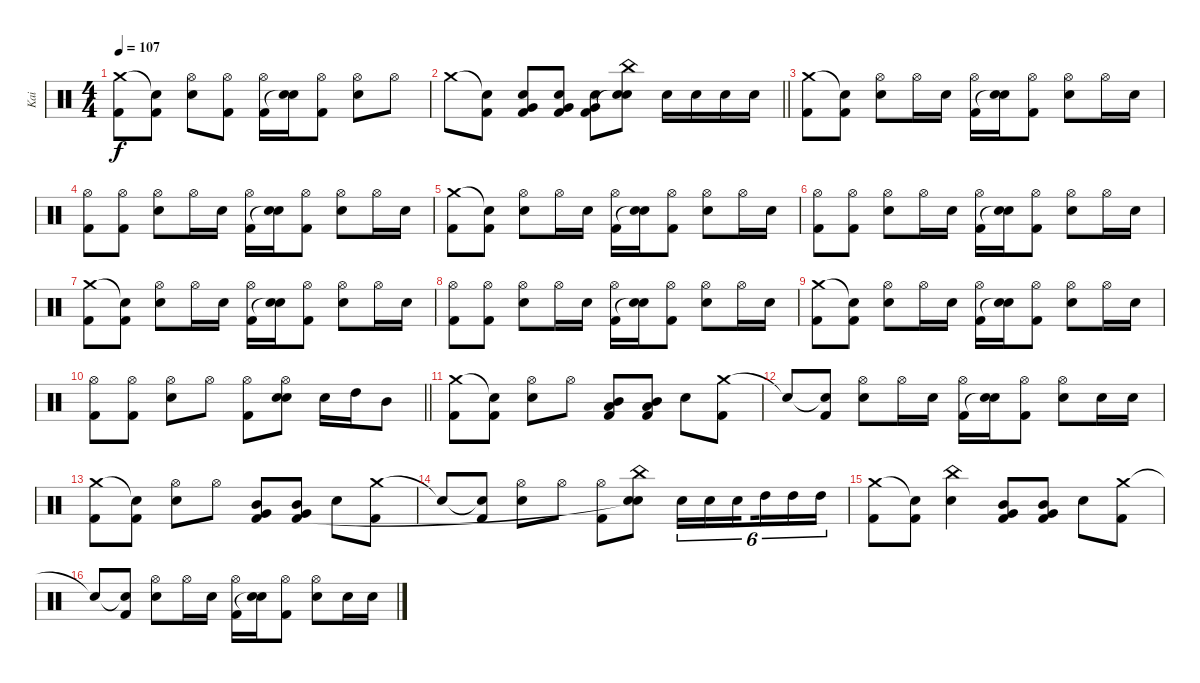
\track ("Kai" "Kai") {instrument percussion}
\staff {score}
\articulation defaults
\ts (4 4)
\tempo 107
\clef neutral
\ks c
("Crash medium (hit)" "Kick (hit) 2").8{dy f} ("Snare (hit)"{t} "Kick (hit) 2").8 ("Hi-Hat (open)" "Snare (hit) 2").8 ("Hi-Hat (open)" "Kick (hit) 2").8 ("Hi-Hat (open)" "Kick (hit) 2").16 ("Snare (hit) 2" "Snare (hit)"{t}).16 ("Hi-Hat (open)" "Kick (hit) 2").8 ("Hi-Hat (open)" "Snare (hit) 2").8 "Hi-Hat (open)".8 |
\barLineRight lightlight "Crash medium (hit)".8
("Snare (hit)"{t} "Kick (hit) 2").8 ("Snare (hit) 2" "Very Low Tom (hit)" "Kick (hit) 2").8 ("Snare (hit) 2" "Very Low Tom (hit)" "Kick (hit) 2").8 ("Snare (hit) 2" "Very Low Tom (hit)" "Kick (hit) 2").8 ("China (hit)" "Snare (hit) 2" "Snare (hit)"{t}).8 "Snare (hit) 2".16 "Snare (hit) 2".16 "Snare (hit) 2".16 "Snare (hit) 2".16 |
("Crash medium (hit)" "Kick (hit) 2").8 ("Snare (hit)"{t} "Kick (hit) 2").8 ("Hi-Hat (open)" "Snare (hit) 2").8 "Hi-Hat (open)".16 "Snare (hit) 2".16 ("Hi-Hat (open)" "Kick (hit) 2").16 ("Snare (hit) 2" "Snare (hit)"{t}).16 ("Hi-Hat (open)" "Kick (hit) 2").8 ("Hi-Hat (open)" "Snare (hit) 2").8 "Hi-Hat (open)".16 "Snare (hit) 2".16 |
("Hi-Hat (open)" "Kick (hit) 2").8 ("Hi-Hat (open)" "Kick (hit) 2").8 ("Hi-Hat (open)" "Snare (hit) 2").8 "Hi-Hat (open)".16 "Snare (hit) 2".16 ("Hi-Hat (open)" "Kick (hit) 2").16 ("Snare (hit) 2" "Snare (hit)"{t}).16 ("Hi-Hat (open)" "Kick (hit) 2").8 ("Hi-Hat (open)" "Snare (hit) 2").8 "Hi-Hat (open)".16 "Snare (hit) 2".16 |
("Crash medium (hit)" "Kick (hit) 2").8 ("Snare (hit)"{t} "Kick (hit) 2").8 ("Hi-Hat (open)" "Snare (hit) 2").8 "Hi-Hat (open)".16 "Snare (hit) 2".16 ("Hi-Hat (open)" "Kick (hit) 2").16 ("Snare (hit) 2" "Snare (hit)"{t}).16 ("Hi-Hat (open)" "Kick (hit) 2").8 ("Hi-Hat (open)" "Snare (hit) 2").8 "Hi-Hat (open)".16 "Snare (hit) 2".16 |
("Hi-Hat (open)" "Kick (hit) 2").8 ("Hi-Hat (open)" "Kick (hit) 2").8 ("Hi-Hat (open)" "Snare (hit) 2").8 "Hi-Hat (open)".16 "Snare (hit) 2".16 ("Hi-Hat (open)" "Kick (hit) 2").16 ("Snare (hit) 2" "Snare (hit)"{t}).16 ("Hi-Hat (open)" "Kick (hit) 2").8 ("Hi-Hat (open)" "Snare (hit) 2").8 "Hi-Hat (open)".16 "Snare (hit) 2".16 |
("Crash medium (hit)" "Kick (hit) 2").8 ("Snare (hit)"{t} "Kick (hit) 2").8 ("Hi-Hat (open)" "Snare (hit) 2").8 "Hi-Hat (open)".16 "Snare (hit) 2".16 ("Hi-Hat (open)" "Kick (hit) 2").16 ("Snare (hit) 2" "Snare (hit)"{t}).16 ("Hi-Hat (open)" "Kick (hit) 2").8 ("Hi-Hat (open)" "Snare (hit) 2").8 "Hi-Hat (open)".16 "Snare (hit) 2".16 |
("Hi-Hat (open)" "Kick (hit) 2").8 ("Hi-Hat (open)" "Kick (hit) 2").8 ("Hi-Hat (open)" "Snare (hit) 2").8 "Hi-Hat (open)".16 "Snare (hit) 2".16 ("Hi-Hat (open)" "Kick (hit) 2").16 ("Snare (hit) 2" "Snare (hit)"{t}).16 ("Hi-Hat (open)" "Kick (hit) 2").8 ("Hi-Hat (open)" "Snare (hit) 2").8 "Hi-Hat (open)".16 "Snare (hit) 2".16 |
("Crash medium (hit)" "Kick (hit) 2").8 ("Snare (hit)"{t} "Kick (hit) 2").8 ("Hi-Hat (open)" "Snare (hit) 2").8 "Hi-Hat (open)".16 "Snare (hit) 2".16 ("Hi-Hat (open)" "Kick (hit) 2").16 ("Snare (hit) 2" "Snare (hit)"{t}).16 ("Hi-Hat (open)" "Kick (hit) 2").8 ("Hi-Hat (open)" "Snare (hit) 2").8 "Hi-Hat (open)".16 "Snare (hit) 2".16 |
\barLineRight lightlight
("Hi-Hat (open)" "Kick (hit) 2").8 ("Hi-Hat (open)" "Kick (hit) 2").8 ("Hi-Hat (open)" "Snare (hit) 2").8 "Hi-Hat (open)".8 ("Hi-Hat (open)" "Kick (hit) 2").8 ("Hi-Hat (open)" "Snare (hit) 2" "Snare (hit)").8 "Snare (hit) 2".16 "High Tom (hit)".16 "Mid Tom (hit)".8 |
("Crash medium (hit)" "Kick (hit) 2").8 ("Snare (hit)"{t} "Kick (hit) 2").8 ("Hi-Hat (open)" "Snare (hit) 2").8 "Hi-Hat (open)".8 ("Mid Tom (hit)" "Low Tom (hit)" "Kick (hit) 2").8 ("Mid Tom (hit)" "Low Tom (hit)" "Kick (hit) 2").8 "Snare (hit) 2".8 ("Crash medium (hit)" "Kick (hit) 2").8 |
"Snare (hit)"{t}.8 ("Snare (hit)"{t} "Kick (hit) 2").8 ("Hi-Hat (open)" "Snare (hit) 2").8 "Hi-Hat (open)".16 "Snare (hit) 2".16 ("Hi-Hat (open)" "Kick (hit) 2").16 ("Snare (hit) 2" "Snare (hit)"{t}).16 ("Hi-Hat (open)" "Kick (hit) 2").8 ("Hi-Hat (open)" "Snare (hit) 2").8 "Snare (hit) 2".16 "Snare (hit) 2".16 |
("Crash medium (hit)" "Kick (hit) 2").8 ("Snare (hit)"{t} "Kick (hit) 2").8 ("Hi-Hat (open)" "Snare (hit) 2").8 "Hi-Hat (open)".8 ("Mid Tom (hit)" "Very Low Tom (hit)" "Kick (hit) 2").8 ("Mid Tom (hit)" "Very Low Tom (hit)" "Kick (hit) 2").8 "Snare (hit) 2".8 ("Crash medium (hit)" "Kick (hit) 2").8 |
"Snare (hit)"{t}.8 ("Snare (hit)"{t} "Kick (hit) 2").8 ("Hi-Hat (open)" "Snare (hit) 2").8 "Hi-Hat (open)".8 ("Hi-Hat (open)" "Kick (hit) 2").8 ("China (hit)" "Snare (hit) 2" "Snare (hit)"{t}).8 "Snare (hit) 2".16{tu (6 4)} "Snare (hit) 2".16{tu (6 4)} "Snare (hit) 2".16{tu (6 4) beam splitsecondary} "High Tom (hit)".16{tu (6 4)} "High Tom (hit)".16{tu (6 4)} "High Tom (hit)".16{tu (6 4)} |
("Crash medium (hit)" "Kick (hit) 2").8 ("Snare (hit)"{t} "Kick (hit) 2").8 ("China (hit)" "Snare (hit) 2").4 ("Mid Tom (hit)" "Very Low Tom (hit)" "Kick (hit) 2").8 ("Mid Tom (hit)" "Very Low Tom (hit)" "Kick (hit) 2").8 "Snare (hit) 2".8 ("Crash medium (hit)" "Kick (hit) 2").8 |
"Snare (hit)"{t}.8 ("Snare (hit)"{t} "Kick (hit) 2").8 ("Hi-Hat (open)" "Snare (hit) 2").8 "Hi-Hat (open)".16 "Snare (hit) 2".16 ("Hi-Hat (open)" "Kick (hit) 2").16 ("Snare (hit) 2" "Snare (hit)"{t}).16 ("Hi-Hat (open)" "Kick (hit) 2").8 ("Hi-Hat (open)" "Snare (hit) 2").8 "Snare (hit) 2".16 "Snare (hit) 2".16
